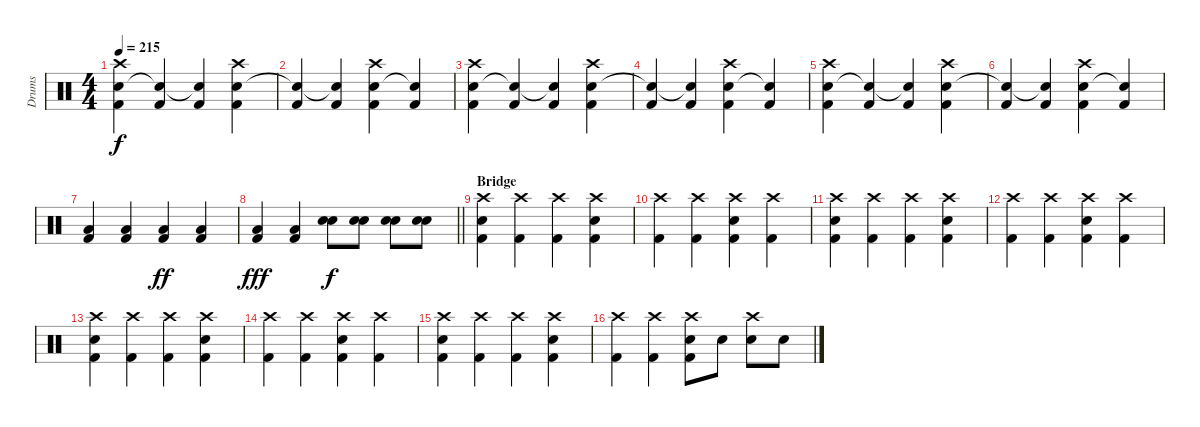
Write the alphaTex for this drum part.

\track ("Drums" "Drums") {instrument percussion}
\staff {score}
\articulation defaults
\ts (4 4)
\tempo 215
\clef neutral
\ks c
("Kick (hit) 2" "Snare (hit) 2" "Crash high (hit)").4{dy f} ("Kick (hit) 2" "Snare (hit)"{t}).4 ("Kick (hit) 2" "Snare (hit)"{t}).4 ("Kick (hit) 2" "Snare (hit) 2" "Crash high (hit)").4 |
("Kick (hit) 2" "Snare (hit)"{t}).4 ("Kick (hit) 2" "Snare (hit)"{t}).4 ("Kick (hit) 2" "Snare (hit) 2" "Crash high (hit)").4 ("Kick (hit) 2" "Snare (hit)"{t}).4 |
("Kick (hit) 2" "Snare (hit) 2" "Crash high (hit)").4 ("Kick (hit) 2" "Snare (hit)"{t}).4 ("Kick (hit) 2" "Snare (hit)"{t}).4 ("Kick (hit) 2" "Snare (hit) 2" "Crash high (hit)").4 |
("Kick (hit) 2" "Snare (hit)"{t}).4 ("Kick (hit) 2" "Snare (hit)"{t}).4 ("Kick (hit) 2" "Snare (hit) 2" "Crash high (hit)").4 ("Kick (hit) 2" "Snare (hit)"{t}).4 |
("Kick (hit) 2" "Snare (hit) 2" "Crash high (hit)").4 ("Kick (hit) 2" "Snare (hit)"{t}).4 ("Kick (hit) 2" "Snare (hit)"{t}).4 ("Kick (hit) 2" "Snare (hit) 2" "Crash high (hit)").4 |
("Kick (hit) 2" "Snare (hit)"{t}).4 ("Kick (hit) 2" "Snare (hit)"{t}).4 ("Kick (hit) 2" "Snare (hit) 2" "Crash high (hit)").4 ("Kick (hit) 2" "Snare (hit)"{t}).4 |
("Low Floor Tom (hit)" "Kick (hit) 2").4 ("Low Floor Tom (hit)" "Kick (hit) 2").4 ("Low Floor Tom (hit)" "Kick (hit) 2").4{dy ff} ("Low Floor Tom (hit)" "Kick (hit) 2").4 |
\barLineRight lightlight
("Low Floor Tom (hit)" "Kick (hit) 2").4{dy fff} ("Low Floor Tom (hit)" "Kick (hit) 2").4 ("Electric Snare (hit)" "Snare (hit) 2").8{dy f} ("Electric Snare (hit)" "Snare (hit) 2").8 ("Electric Snare (hit)" "Snare (hit) 2").8 ("Electric Snare (hit)" "Snare (hit) 2").8 |
\section ("" "Bridge")
("Kick (hit) 2" "Snare (hit) 2" "Crash high (hit)").4 ("Kick (hit) 2" "Crash high (hit)").4 ("Kick (hit) 2" "Crash high (hit)").4 ("Kick (hit) 2" "Snare (hit) 2" "Crash high (hit)").4 |
("Kick (hit) 2" "Crash high (hit)").4 ("Kick (hit) 2" "Crash high (hit)").4 ("Kick (hit) 2" "Snare (hit) 2" "Crash high (hit)").4 ("Kick (hit) 2" "Crash high (hit)").4 |
("Kick (hit) 2" "Snare (hit) 2" "Crash high (hit)").4 ("Kick (hit) 2" "Crash high (hit)").4 ("Kick (hit) 2" "Crash high (hit)").4 ("Kick (hit) 2" "Snare (hit) 2" "Crash high (hit)").4 |
("Kick (hit) 2" "Crash high (hit)").4 ("Kick (hit) 2" "Crash high (hit)").4 ("Kick (hit) 2" "Snare (hit) 2" "Crash high (hit)").4 ("Kick (hit) 2" "Crash high (hit)").4 |
("Kick (hit) 2" "Snare (hit) 2" "Crash high (hit)").4 ("Kick (hit) 2" "Crash high (hit)").4 ("Kick (hit) 2" "Crash high (hit)").4 ("Kick (hit) 2" "Snare (hit) 2" "Crash high (hit)").4 |
("Kick (hit) 2" "Crash high (hit)").4 ("Kick (hit) 2" "Crash high (hit)").4 ("Kick (hit) 2" "Snare (hit) 2" "Crash high (hit)").4 ("Kick (hit) 2" "Crash high (hit)").4 |
("Kick (hit) 2" "Snare (hit) 2" "Crash high (hit)").4 ("Kick (hit) 2" "Crash high (hit)").4 ("Kick (hit) 2" "Crash high (hit)").4 ("Kick (hit) 2" "Snare (hit) 2" "Crash high (hit)").4 |
("Kick (hit) 2" "Crash high (hit)").4 ("Kick (hit) 2" "Crash high (hit)").4 ("Kick (hit) 2" "Snare (hit) 2" "Crash high (hit)").8 "Snare (hit) 2".8 ("Snare (hit) 2" "Crash high (hit)").8 "Snare (hit) 2".8
